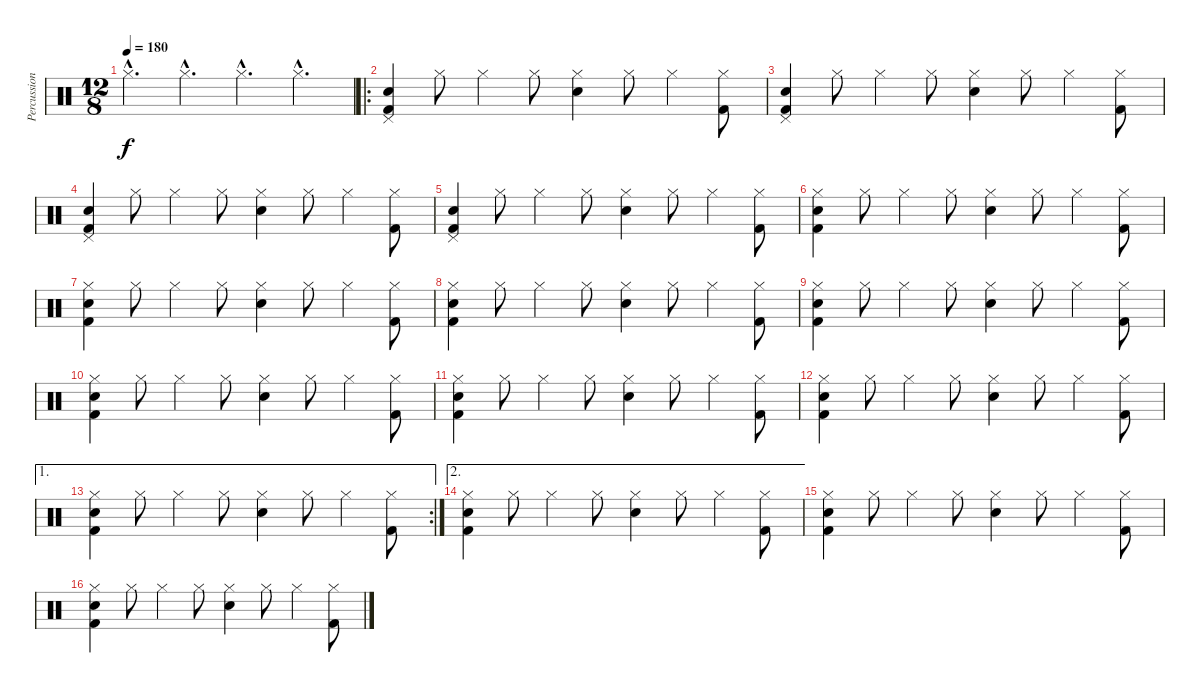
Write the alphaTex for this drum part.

\track ("Percussioni" "Percussion") {instrument percussion}
\staff {score}
\articulation defaults
\ts (12 8)
\tempo 180
\clef neutral
\ks c "Hi-Hat (closed)"{hac}.4{d dy f} "Hi-Hat (closed)"{hac}.4{d} "Hi-Hat (closed)"{hac}.4{d} "Hi-Hat (closed)"{hac}.4{d}
|
\ro
("Pedal Hi-Hat (hit)" "Snare (hit) 2" "Kick (hit) 2").4 "Hi-Hat (closed)".8 "Hi-Hat (closed)".4 "Hi-Hat (closed)".8 ("Hi-Hat (closed)" "Snare (hit) 2").4 "Hi-Hat (closed)".8 "Hi-Hat (closed)".4 ("Hi-Hat (closed)" "Kick (hit) 2").8 |
("Pedal Hi-Hat (hit)" "Snare (hit) 2" "Kick (hit) 2").4 "Hi-Hat (closed)".8 "Hi-Hat (closed)".4 "Hi-Hat (closed)".8 ("Hi-Hat (closed)" "Snare (hit) 2").4 "Hi-Hat (closed)".8 "Hi-Hat (closed)".4 ("Hi-Hat (closed)" "Kick (hit) 2").8 |
("Pedal Hi-Hat (hit)" "Snare (hit) 2" "Kick (hit) 2").4 "Hi-Hat (closed)".8 "Hi-Hat (closed)".4 "Hi-Hat (closed)".8 ("Hi-Hat (closed)" "Snare (hit) 2").4 "Hi-Hat (closed)".8 "Hi-Hat (closed)".4 ("Hi-Hat (closed)" "Kick (hit) 2").8 |
("Pedal Hi-Hat (hit)" "Snare (hit) 2" "Kick (hit) 2").4 "Hi-Hat (closed)".8 "Hi-Hat (closed)".4 "Hi-Hat (closed)".8 ("Hi-Hat (closed)" "Snare (hit) 2").4 "Hi-Hat (closed)".8 "Hi-Hat (closed)".4 ("Hi-Hat (closed)" "Kick (hit) 2").8 |
("Hi-Hat (closed)" "Snare (hit) 2" "Kick (hit) 2").4 "Hi-Hat (closed)".8 "Hi-Hat (closed)".4 "Hi-Hat (closed)".8 ("Hi-Hat (closed)" "Snare (hit) 2").4 "Hi-Hat (closed)".8 "Hi-Hat (closed)".4 ("Hi-Hat (closed)" "Kick (hit) 2").8 |
("Hi-Hat (closed)" "Snare (hit) 2" "Kick (hit) 2").4 "Hi-Hat (closed)".8 "Hi-Hat (closed)".4 "Hi-Hat (closed)".8 ("Hi-Hat (closed)" "Snare (hit) 2").4 "Hi-Hat (closed)".8 "Hi-Hat (closed)".4 ("Hi-Hat (closed)" "Kick (hit) 2").8 |
("Hi-Hat (closed)" "Snare (hit) 2" "Kick (hit) 2").4 "Hi-Hat (closed)".8 "Hi-Hat (closed)".4 "Hi-Hat (closed)".8 ("Hi-Hat (closed)" "Snare (hit) 2").4 "Hi-Hat (closed)".8 "Hi-Hat (closed)".4 ("Hi-Hat (closed)" "Kick (hit) 2").8 |
("Hi-Hat (closed)" "Snare (hit) 2" "Kick (hit) 2").4 "Hi-Hat (closed)".8 "Hi-Hat (closed)".4 "Hi-Hat (closed)".8 ("Hi-Hat (closed)" "Snare (hit) 2").4 "Hi-Hat (closed)".8 "Hi-Hat (closed)".4 ("Hi-Hat (closed)" "Kick (hit) 2").8 |
("Hi-Hat (closed)" "Snare (hit) 2" "Kick (hit) 2").4 "Hi-Hat (closed)".8 "Hi-Hat (closed)".4 "Hi-Hat (closed)".8 ("Hi-Hat (closed)" "Snare (hit) 2").4 "Hi-Hat (closed)".8 "Hi-Hat (closed)".4 ("Hi-Hat (closed)" "Kick (hit) 2").8 |
("Hi-Hat (closed)" "Snare (hit) 2" "Kick (hit) 2").4 "Hi-Hat (closed)".8 "Hi-Hat (closed)".4 "Hi-Hat (closed)".8 ("Hi-Hat (closed)" "Snare (hit) 2").4 "Hi-Hat (closed)".8 "Hi-Hat (closed)".4 ("Hi-Hat (closed)" "Kick (hit) 2").8 |
("Hi-Hat (closed)" "Snare (hit) 2" "Kick (hit) 2").4 "Hi-Hat (closed)".8 "Hi-Hat (closed)".4 "Hi-Hat (closed)".8 ("Hi-Hat (closed)" "Snare (hit) 2").4 "Hi-Hat (closed)".8 "Hi-Hat (closed)".4 ("Hi-Hat (closed)" "Kick (hit) 2").8 |
\ae 1
\rc 2
("Hi-Hat (closed)" "Snare (hit) 2" "Kick (hit) 2").4 "Hi-Hat (closed)".8 "Hi-Hat (closed)".4 "Hi-Hat (closed)".8 ("Hi-Hat (closed)" "Snare (hit) 2").4 "Hi-Hat (closed)".8 "Hi-Hat (closed)".4 ("Hi-Hat (closed)" "Kick (hit) 2").8 |
\ae 2
("Hi-Hat (closed)" "Snare (hit) 2" "Kick (hit) 2").4 "Hi-Hat (closed)".8 "Hi-Hat (closed)".4 "Hi-Hat (closed)".8 ("Hi-Hat (closed)" "Snare (hit) 2").4 "Hi-Hat (closed)".8 "Hi-Hat (closed)".4 ("Hi-Hat (closed)" "Kick (hit) 2").8 |
("Hi-Hat (closed)" "Snare (hit) 2" "Kick (hit) 2").4 "Hi-Hat (closed)".8 "Hi-Hat (closed)".4 "Hi-Hat (closed)".8 ("Hi-Hat (closed)" "Snare (hit) 2").4 "Hi-Hat (closed)".8 "Hi-Hat (closed)".4 ("Hi-Hat (closed)" "Kick (hit) 2").8 |
("Hi-Hat (closed)" "Snare (hit) 2" "Kick (hit) 2").4 "Hi-Hat (closed)".8 "Hi-Hat (closed)".4 "Hi-Hat (closed)".8 ("Hi-Hat (closed)" "Snare (hit) 2").4 "Hi-Hat (closed)".8 "Hi-Hat (closed)".4 ("Hi-Hat (closed)" "Kick (hit) 2").8
